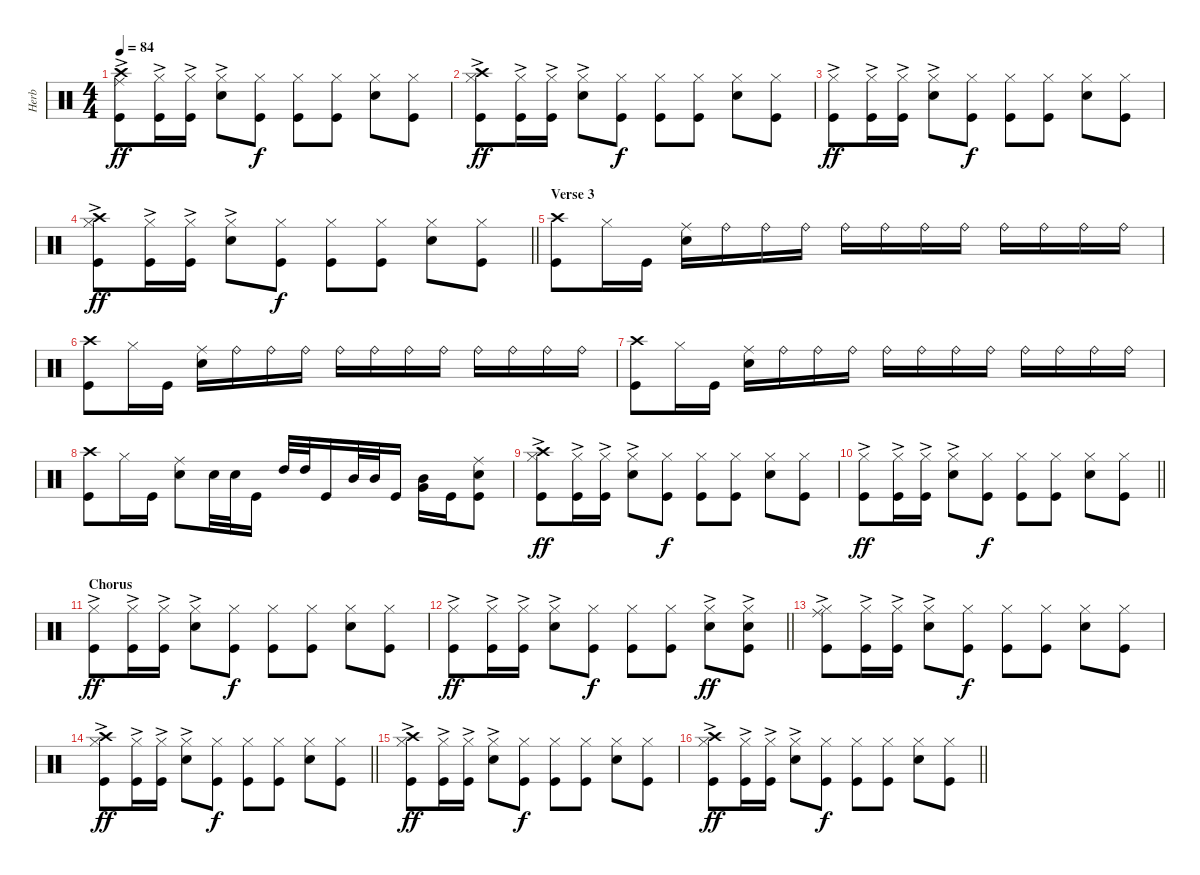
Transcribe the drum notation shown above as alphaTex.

\track ("Herb" "Herb") {instrument percussion}
\staff {score}
\articulation defaults
\ts (4 4)
\tempo 84
\clef neutral
\ks c
("Ride (middle)"{ac} "Crash high (hit)" "Kick (hit)").8{dy ff} ("Hi-Hat (closed)"{ac} "Kick (hit)").16 ("Hi-Hat (closed)"{ac} "Kick (hit)").16 ("Hi-Hat (closed)"{ac} "Snare (hit) 2"{ac}).8 ("Hi-Hat (closed)" "Kick (hit)").8{dy f} ("Hi-Hat (closed)" "Kick (hit)").8 ("Hi-Hat (closed)" "Kick (hit)").8 ("Hi-Hat (closed)" "Snare (hit) 2").8 ("Hi-Hat (closed)" "Kick (hit)").8 |
("Hi-Hat (closed)"{ac} "Crash high (hit)" "Kick (hit)").8{dy ff} ("Hi-Hat (closed)"{ac} "Kick (hit)").16 ("Hi-Hat (closed)"{ac} "Kick (hit)").16 ("Hi-Hat (closed)"{ac} "Snare (hit) 2"{ac}).8 ("Hi-Hat (closed)" "Kick (hit)").8{dy f} ("Hi-Hat (closed)" "Kick (hit)").8 ("Hi-Hat (closed)" "Kick (hit)").8 ("Hi-Hat (closed)" "Snare (hit) 2").8 ("Hi-Hat (closed)" "Kick (hit)").8 |
("Hi-Hat (closed)"{ac} "Kick (hit)").8{dy ff} ("Hi-Hat (closed)"{ac} "Kick (hit)").16 ("Hi-Hat (closed)"{ac} "Kick (hit)").16 ("Hi-Hat (closed)"{ac} "Snare (hit) 2"{ac}).8 ("Hi-Hat (closed)" "Kick (hit)").8{dy f} ("Hi-Hat (closed)" "Kick (hit)").8 ("Hi-Hat (closed)" "Kick (hit)").8 ("Hi-Hat (closed)" "Snare (hit) 2").8 ("Hi-Hat (closed)" "Kick (hit)").8 |
\barLineRight lightlight
("Hi-Hat (closed)"{ac} "Crash high (hit)" "Kick (hit)").8{dy ff} ("Hi-Hat (closed)"{ac} "Kick (hit)").16 ("Hi-Hat (closed)"{ac} "Kick (hit)").16 ("Hi-Hat (closed)"{ac} "Snare (hit) 2"{ac}).8 ("Hi-Hat (closed)" "Kick (hit)").8{dy f} ("Hi-Hat (closed)" "Kick (hit)").8 ("Hi-Hat (closed)" "Kick (hit)").8 ("Hi-Hat (closed)" "Snare (hit) 2").8 ("Hi-Hat (closed)" "Kick (hit)").8 |
\section ("" "Verse 3")
("Crash high (hit)" "Kick (hit)").8 "Hi-Hat (closed)".16 "Kick (hit)".16 ("Ride (middle)" "Snare (hit) 2").16 "Ride (bell)".16 "Ride (bell)".16 "Ride (bell)".16 "Ride (bell)".16 "Ride (bell)".16 "Ride (bell)".16 "Ride (bell)".16 "Ride (bell)".16 "Ride (bell)".16 "Ride (bell)".16 "Ride (bell)".16 |
("Crash high (hit)" "Kick (hit)").8 "Hi-Hat (closed)".16 "Kick (hit)".16 ("Ride (middle)" "Snare (hit) 2").16 "Ride (bell)".16 "Ride (bell)".16 "Ride (bell)".16 "Ride (bell)".16 "Ride (bell)".16 "Ride (bell)".16 "Ride (bell)".16 "Ride (bell)".16 "Ride (bell)".16 "Ride (bell)".16 "Ride (bell)".16 |
("Crash high (hit)" "Kick (hit)").8 "Hi-Hat (closed)".16 "Kick (hit)".16 ("Ride (middle)" "Snare (hit) 2").16 "Ride (bell)".16 "Ride (bell)".16 "Ride (bell)".16 "Ride (bell)".16 "Ride (bell)".16 "Ride (bell)".16 "Ride (bell)".16 "Ride (bell)".16 "Ride (bell)".16 "Ride (bell)".16 "Ride (bell)".16 |
("Crash high (hit)" "Kick (hit)").8 "Hi-Hat (closed)".16 "Kick (hit)".16 ("Ride (middle)" "Snare (hit) 2").8 "Snare (hit) 2".32 "Snare (hit) 2".32 "Kick (hit)".16 "High Tom (hit)".32 "High Tom (hit)".32 "Kick (hit)".16 "Mid Tom (hit)".32 "Mid Tom (hit)".32 "Kick (hit)".16 ("Mid Tom (hit)" "Very Low Tom (hit)").16 "Kick (hit)".16 ("Ride (middle)" "Snare (hit) 2" "Kick (hit)").8 |
("Hi-Hat (closed)"{ac} "Crash high (hit)"{ac} "Kick (hit)").8{dy ff} ("Hi-Hat (closed)"{ac} "Kick (hit)").16 ("Hi-Hat (closed)"{ac} "Kick (hit)").16 ("Hi-Hat (closed)"{ac} "Snare (hit) 2"{ac}).8 ("Hi-Hat (closed)" "Kick (hit)").8{dy f} ("Hi-Hat (closed)" "Kick (hit)").8 ("Hi-Hat (closed)" "Kick (hit)").8 ("Hi-Hat (closed)" "Snare (hit) 2").8 ("Hi-Hat (closed)" "Kick (hit)").8 |
\barLineRight lightlight
("Hi-Hat (closed)"{ac} "Kick (hit)").8{dy ff} ("Hi-Hat (closed)"{ac} "Kick (hit)").16 ("Hi-Hat (closed)"{ac} "Kick (hit)").16 ("Hi-Hat (closed)"{ac} "Snare (hit) 2"{ac}).8 ("Hi-Hat (closed)" "Kick (hit)").8{dy f} ("Hi-Hat (closed)" "Kick (hit)").8 ("Hi-Hat (closed)" "Kick (hit)").8 ("Hi-Hat (closed)" "Snare (hit) 2").8 ("Hi-Hat (closed)" "Kick (hit)").8 |
\section ("" "Chorus")
("Hi-Hat (closed)"{ac} "Kick (hit)").8{dy ff} ("Hi-Hat (closed)"{ac} "Kick (hit)").16 ("Hi-Hat (closed)"{ac} "Kick (hit)").16 ("Hi-Hat (closed)"{ac} "Snare (hit) 2"{ac}).8 ("Hi-Hat (closed)" "Kick (hit)").8{dy f} ("Hi-Hat (closed)" "Kick (hit)").8 ("Hi-Hat (closed)" "Kick (hit)").8 ("Hi-Hat (closed)" "Snare (hit) 2").8 ("Hi-Hat (closed)" "Kick (hit)").8 |
\barLineRight lightlight
("Hi-Hat (closed)"{ac} "Kick (hit)").8{dy ff} ("Hi-Hat (closed)"{ac} "Kick (hit)").16 ("Hi-Hat (closed)"{ac} "Kick (hit)").16 ("Hi-Hat (closed)"{ac} "Snare (hit) 2"{ac}).8 ("Hi-Hat (closed)" "Kick (hit)").8{dy f} ("Hi-Hat (closed)" "Kick (hit)").8 ("Hi-Hat (closed)" "Kick (hit)").8 ("Hi-Hat (closed)"{ac} "Snare (hit) 2"{ac}).8{dy ff} ("Hi-Hat (closed)"{ac} "Snare (hit) 2"{ac} "Kick (hit)").8 |
("Hi-Hat (closed)"{ac} "Ride (middle)"{ac} "Kick (hit)").8 ("Hi-Hat (closed)"{ac} "Kick (hit)").16 ("Hi-Hat (closed)"{ac} "Kick (hit)").16 ("Hi-Hat (closed)"{ac} "Snare (hit) 2"{ac}).8 ("Hi-Hat (closed)" "Kick (hit)").8{dy f} ("Hi-Hat (closed)" "Kick (hit)").8 ("Hi-Hat (closed)" "Kick (hit)").8 ("Hi-Hat (closed)" "Snare (hit) 2").8 ("Hi-Hat (closed)" "Kick (hit)").8 |
\barLineRight lightlight
("Hi-Hat (closed)"{ac} "Crash high (hit)" "Kick (hit)").8{dy ff} ("Hi-Hat (closed)"{ac} "Kick (hit)").16 ("Hi-Hat (closed)"{ac} "Kick (hit)").16 ("Hi-Hat (closed)"{ac} "Snare (hit) 2"{ac}).8 ("Hi-Hat (closed)" "Kick (hit)").8{dy f} ("Hi-Hat (closed)" "Kick (hit)").8 ("Hi-Hat (closed)" "Kick (hit)").8 ("Hi-Hat (closed)" "Snare (hit) 2").8 ("Hi-Hat (closed)" "Kick (hit)").8 |
("Hi-Hat (closed)"{ac} "Crash high (hit)"{ac} "Kick (hit)").8{dy ff} ("Hi-Hat (closed)"{ac} "Kick (hit)").16 ("Hi-Hat (closed)"{ac} "Kick (hit)").16 ("Hi-Hat (closed)"{ac} "Snare (hit) 2"{ac}).8 ("Hi-Hat (closed)" "Kick (hit)").8{dy f} ("Hi-Hat (closed)" "Kick (hit)").8 ("Hi-Hat (closed)" "Kick (hit)").8 ("Hi-Hat (closed)" "Snare (hit) 2").8 ("Hi-Hat (closed)" "Kick (hit)").8 |
\barLineRight lightlight
("Hi-Hat (closed)"{ac} "Crash high (hit)" "Kick (hit)").8{dy ff} ("Hi-Hat (closed)"{ac} "Kick (hit)").16 ("Hi-Hat (closed)"{ac} "Kick (hit)").16 ("Hi-Hat (closed)"{ac} "Snare (hit) 2"{ac}).8 ("Hi-Hat (closed)" "Kick (hit)").8{dy f} ("Hi-Hat (closed)" "Kick (hit)").8 ("Hi-Hat (closed)" "Kick (hit)").8 ("Hi-Hat (closed)" "Snare (hit) 2").8 ("Hi-Hat (closed)" "Kick (hit)").8
